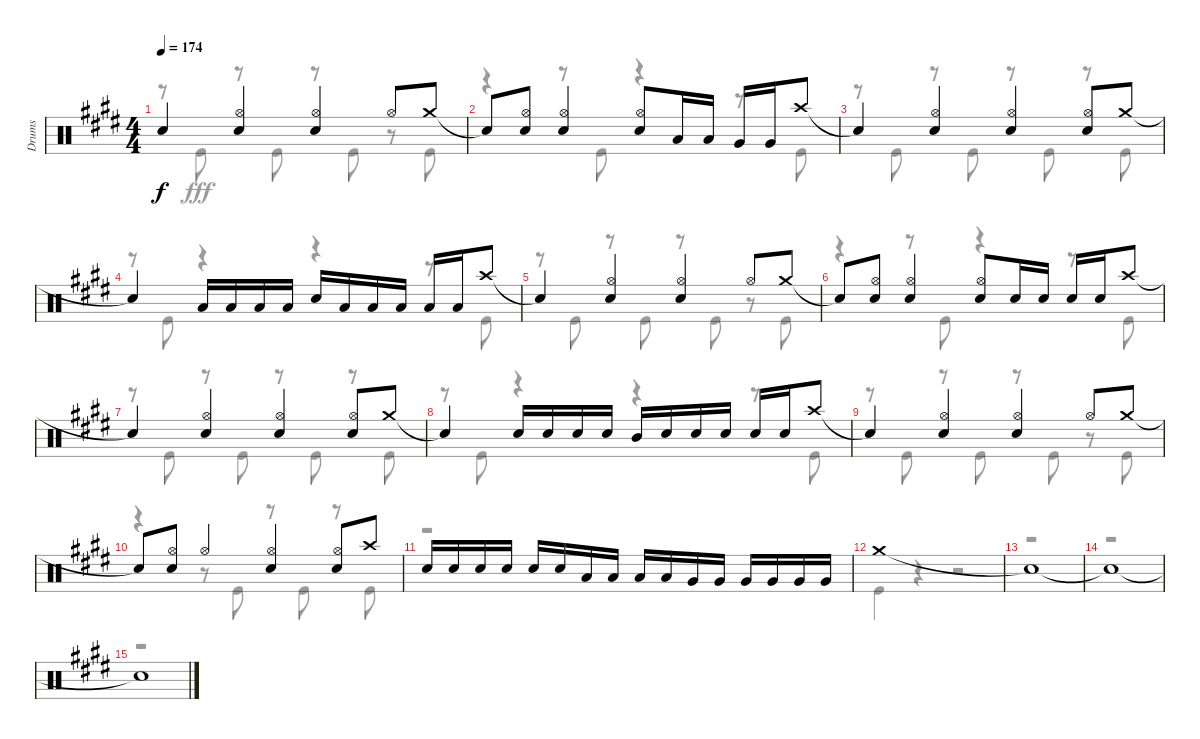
\track ("Drums" "Drums") {instrument percussion}
\staff {score}
\articulation defaults
\voice
\ts (4 4)
\tempo 174
\clef neutral
\ks e "Snare (hit)"{t}.4{dy f}
("Hi-Hat (open)" "Snare (hit) 2").4 ("Hi-Hat (open)" "Snare (hit) 2").4 "Hi-Hat (open)".8 "Crash medium (hit)".8 |
"Snare (hit)"{t}.8 ("Hi-Hat (open)" "Snare (hit) 2").8 ("Hi-Hat (open)" "Snare (hit) 2").4 ("Hi-Hat (open)" "Snare (hit) 2").8 "Low Tom (hit)".16 "Low Tom (hit)".16 "Very Low Tom (hit)".16 "Very Low Tom (hit)".16 "Crash high (hit)".8 |
"Snare (hit)"{t}.4 ("Hi-Hat (open)" "Snare (hit) 2").4 ("Hi-Hat (open)" "Snare (hit) 2").4 ("Hi-Hat (open)" "Snare (hit) 2").8 "Crash medium (hit)".8 |
"Snare (hit)"{t}.4 "Low Tom (hit)".16 "Low Tom (hit)".16 "Low Tom (hit)".16 "Low Tom (hit)".16 "Snare (hit) 2".16 "Low Tom (hit)".16 "Low Tom (hit)".16 "Low Tom (hit)".16 "Low Tom (hit)".16 "Low Tom (hit)".16 "Crash high (hit)".8 |
"Snare (hit)"{t}.4 ("Hi-Hat (open)" "Snare (hit) 2").4 ("Hi-Hat (open)" "Snare (hit) 2").4 "Hi-Hat (open)".8 "Crash medium (hit)".8 |
"Snare (hit)"{t}.8 ("Hi-Hat (open)" "Snare (hit) 2").8 ("Hi-Hat (open)" "Snare (hit) 2").4 ("Hi-Hat (open)" "Snare (hit) 2").8 "Snare (hit) 2".16 "Snare (hit) 2".16 "Snare (hit) 2".16 "Snare (hit) 2".16 "Crash high (hit)".8 |
"Snare (hit)"{t}.4 ("Hi-Hat (open)" "Snare (hit) 2").4 ("Hi-Hat (open)" "Snare (hit) 2").4 ("Hi-Hat (open)" "Snare (hit) 2").8 "Crash medium (hit)".8 |
"Snare (hit)"{t}.4 "Snare (hit) 2".16 "Snare (hit) 2".16 "Snare (hit) 2".16 "Snare (hit) 2".16 "Mid Tom (hit)".16 "Snare (hit) 2".16 "Snare (hit) 2".16 "Snare (hit) 2".16 "Snare (hit) 2".16 "Snare (hit) 2".16 "Crash high (hit)".8 |
"Snare (hit)"{t}.4 ("Hi-Hat (open)" "Snare (hit) 2").4 ("Hi-Hat (open)" "Snare (hit) 2").4 "Hi-Hat (open)".8 "Crash medium (hit)".8 |
"Snare (hit)"{t}.8 ("Hi-Hat (open)" "Snare (hit) 2").8 "Hi-Hat (open)".4 ("Hi-Hat (open)" "Snare (hit) 2").4 ("Hi-Hat (open)" "Snare (hit) 2").8 "Crash high (hit)".8 |
"Snare (hit) 2".16 "Snare (hit) 2".16 "Snare (hit) 2".16 "Snare (hit) 2".16 "Snare (hit) 2".16 "Snare (hit) 2".16 "Low Tom (hit)".16 "Low Tom (hit)".16 "Low Tom (hit)".16 "Low Tom (hit)".16 "Very Low Tom (hit)".16 "Very Low Tom (hit)".16 "Very Low Tom (hit)".16 "Very Low Tom (hit)".16 "Very Low Tom (hit)".16 "Very Low Tom (hit)".16 |
"Crash medium (hit)".1 |
"Snare (hit)"{t}.1 |
"Snare (hit)"{t}.1 |
"Snare (hit)"{t}.1
\voice
\clef neutral
\ottava regular
\simile none
\ks e
r.8{dy fff} "Kick (hit)".8 r.8 "Kick (hit)".8 r.8 "Kick (hit)".8 r.8 "Kick (hit)".8 |
r.4 r.8 "Kick (hit)".8 r.4 r.8 "Kick (hit)".8 |
r.8 "Kick (hit)".8 r.8 "Kick (hit)".8 r.8 "Kick (hit)".8 r.8 "Kick (hit)".8 |
r.8 "Kick (hit)".8 r.4 r.4 r.8 "Kick (hit)".8 |
r.8 "Kick (hit)".8 r.8 "Kick (hit)".8 r.8 "Kick (hit)".8 r.8 "Kick (hit)".8 |
r.4 r.8 "Kick (hit)".8 r.4 r.8 "Kick (hit)".8 |
r.8 "Kick (hit)".8 r.8 "Kick (hit)".8 r.8 "Kick (hit)".8 r.8 "Kick (hit)".8 |
r.8 "Kick (hit)".8 r.4 r.4 r.8 "Kick (hit)".8 |
r.8 "Kick (hit)".8 r.8 "Kick (hit)".8 r.8 "Kick (hit)".8 r.8 "Kick (hit)".8 |
r.4 r.8 "Kick (hit)".8 r.8 "Kick (hit)".8 r.8 "Kick (hit)".8 |
r.1 |
"Kick (hit)".4 r.4 r.2 |
r.1 |
r.1 |
r.1
